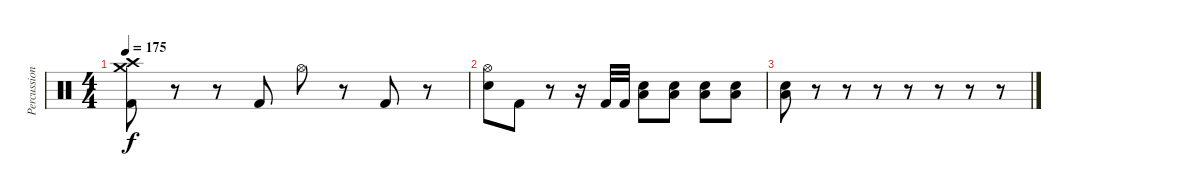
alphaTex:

\track ("Percussion" "Percussion") {instrument percussion}
\staff {score}
\articulation defaults
\ts (4 4)
\tempo 175
\clef neutral
\ks c
("Crash medium (hit)" "Crash high (hit)" "Kick (hit) 2").8{dy f} r.8 r.8 "Kick (hit) 2".8 "Hi-Hat (open)".8 r.8 "Kick (hit) 2".8 r.8 |
("Hi-Hat (open)" "Electric Snare (hit)").8 "Kick (hit) 2".8 r.8 r.16 "Kick (hit) 2".32 "Kick (hit) 2".32 ("Low Floor Tom (hit)" "Electric Snare (hit)").8 ("Low Floor Tom (hit)" "Electric Snare (hit)").8 ("Low Floor Tom (hit)" "Electric Snare (hit)").8 ("Low Floor Tom (hit)" "Electric Snare (hit)").8 |
("Low Floor Tom (hit)" "Electric Snare (hit)").8 r.8 r.8 r.8 r.8 r.8 r.8 r.8
